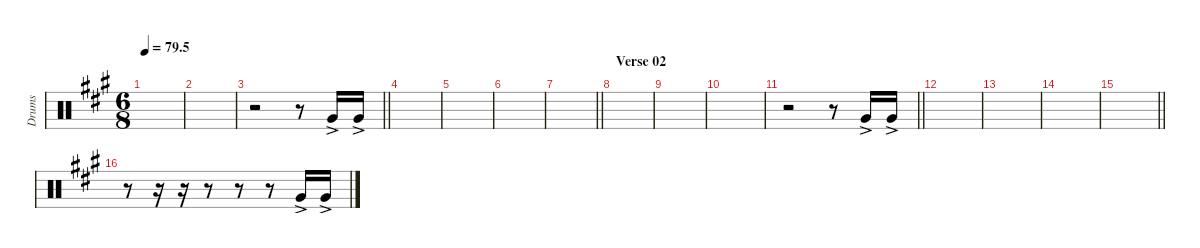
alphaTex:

\defaultSystemsLayout 4
\hideDynamics
\bracketExtendMode nobrackets
\otherSystemsTrackNameOrientation horizontal
\track ("Tom 04" "Drums") {instrument percussion}
\staff {score}
\articulation defaults
\ts (6 8)
\tempo
79.5
\accidentals auto
\clef neutral
\ottava regular
\simile none
\scale
0.333333
\ks a
|
\scale
0.333333 |
\scale
0.333333
\barLineRight lightlight
r.2 r.8 "Very Low Tom (hit)"{ac acc forcenatural}.16 "Very Low Tom (hit)"{ac acc forcenatural}.16 |
\scale
0.333333 |
\scale
0.333333 |
\scale
0.333333 |
\scale
0.333333
\barLineRight lightlight
|
\section ("" "Verse 02")
\scale
0.333333 |
\scale
0.333333 |
\scale
0.333333 |
\scale
0.333333
\barLineRight lightlight
r.2 r.8 "Very Low Tom (hit)"{ac acc forcenatural}.16 "Very Low Tom (hit)"{ac acc forcenatural}.16 |
\scale
0.333333 |
\scale
0.333333 |
\scale
0.333333 |
\scale
0.333333
\barLineRight lightlight
|
\scale
0.333333 r.8 r.16 r.16 r.8 r.8 r.8 "Very Low Tom (hit)"{ac acc forcenatural}.16 "Very Low Tom (hit)"{ac acc forcenatural}.16
